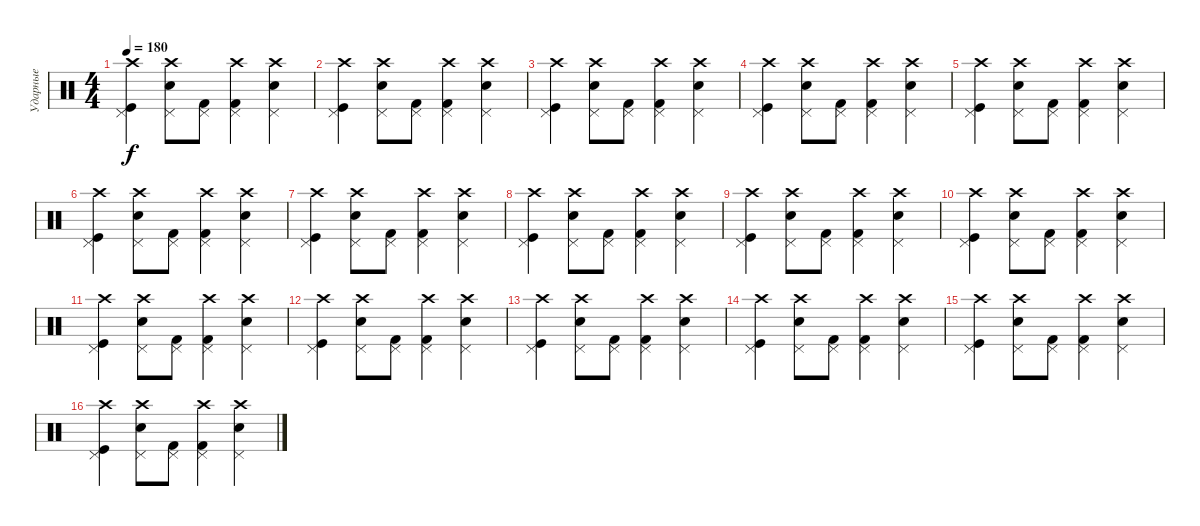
\track ("Ударные" "Ударные") {instrument percussion}
\staff {score}
\articulation defaults
\ts (4 4)
\tempo 180
\clef neutral
\ks c
("Crash high (hit)" "Pedal Hi-Hat (hit)" "Kick (hit)").4{dy f} ("Crash high (hit)" "Pedal Hi-Hat (hit)" "Electric Snare (hit)").8 ("Pedal Hi-Hat (hit)" "Kick (hit) 2").8 ("Crash high (hit)" "Pedal Hi-Hat (hit)" "Kick (hit) 2").4 ("Crash high (hit)" "Pedal Hi-Hat (hit)" "Electric Snare (hit)").4 |
("Crash high (hit)" "Pedal Hi-Hat (hit)" "Kick (hit)").4 ("Crash high (hit)" "Pedal Hi-Hat (hit)" "Electric Snare (hit)").8 ("Pedal Hi-Hat (hit)" "Kick (hit) 2").8 ("Crash high (hit)" "Pedal Hi-Hat (hit)" "Kick (hit) 2").4 ("Crash high (hit)" "Pedal Hi-Hat (hit)" "Electric Snare (hit)").4 |
("Crash high (hit)" "Pedal Hi-Hat (hit)" "Kick (hit)").4 ("Crash high (hit)" "Pedal Hi-Hat (hit)" "Electric Snare (hit)").8 ("Pedal Hi-Hat (hit)" "Kick (hit) 2").8 ("Crash high (hit)" "Pedal Hi-Hat (hit)" "Kick (hit) 2").4 ("Crash high (hit)" "Pedal Hi-Hat (hit)" "Electric Snare (hit)").4 |
("Crash high (hit)" "Pedal Hi-Hat (hit)" "Kick (hit)").4 ("Crash high (hit)" "Pedal Hi-Hat (hit)" "Electric Snare (hit)").8 ("Pedal Hi-Hat (hit)" "Kick (hit) 2").8 ("Crash high (hit)" "Pedal Hi-Hat (hit)" "Kick (hit) 2").4 ("Crash high (hit)" "Pedal Hi-Hat (hit)" "Electric Snare (hit)").4 |
("Crash high (hit)" "Pedal Hi-Hat (hit)" "Kick (hit)").4 ("Crash high (hit)" "Pedal Hi-Hat (hit)" "Electric Snare (hit)").8 ("Pedal Hi-Hat (hit)" "Kick (hit) 2").8 ("Crash high (hit)" "Pedal Hi-Hat (hit)" "Kick (hit) 2").4 ("Crash high (hit)" "Pedal Hi-Hat (hit)" "Electric Snare (hit)").4 |
("Crash high (hit)" "Pedal Hi-Hat (hit)" "Kick (hit)").4 ("Crash high (hit)" "Pedal Hi-Hat (hit)" "Electric Snare (hit)").8 ("Pedal Hi-Hat (hit)" "Kick (hit) 2").8 ("Crash high (hit)" "Pedal Hi-Hat (hit)" "Kick (hit) 2").4 ("Crash high (hit)" "Pedal Hi-Hat (hit)" "Electric Snare (hit)").4 |
("Crash high (hit)" "Pedal Hi-Hat (hit)" "Kick (hit)").4 ("Crash high (hit)" "Pedal Hi-Hat (hit)" "Electric Snare (hit)").8 ("Pedal Hi-Hat (hit)" "Kick (hit) 2").8 ("Crash high (hit)" "Pedal Hi-Hat (hit)" "Kick (hit) 2").4 ("Crash high (hit)" "Pedal Hi-Hat (hit)" "Electric Snare (hit)").4 |
("Crash high (hit)" "Pedal Hi-Hat (hit)" "Kick (hit)").4 ("Crash high (hit)" "Pedal Hi-Hat (hit)" "Electric Snare (hit)").8 ("Pedal Hi-Hat (hit)" "Kick (hit) 2").8 ("Crash high (hit)" "Pedal Hi-Hat (hit)" "Kick (hit) 2").4 ("Crash high (hit)" "Pedal Hi-Hat (hit)" "Electric Snare (hit)").4 |
("Crash high (hit)" "Pedal Hi-Hat (hit)" "Kick (hit)").4 ("Crash high (hit)" "Pedal Hi-Hat (hit)" "Electric Snare (hit)").8 ("Pedal Hi-Hat (hit)" "Kick (hit) 2").8 ("Crash high (hit)" "Pedal Hi-Hat (hit)" "Kick (hit) 2").4 ("Crash high (hit)" "Pedal Hi-Hat (hit)" "Electric Snare (hit)").4 |
("Crash high (hit)" "Pedal Hi-Hat (hit)" "Kick (hit)").4 ("Crash high (hit)" "Pedal Hi-Hat (hit)" "Electric Snare (hit)").8 ("Pedal Hi-Hat (hit)" "Kick (hit) 2").8 ("Crash high (hit)" "Pedal Hi-Hat (hit)" "Kick (hit) 2").4 ("Crash high (hit)" "Pedal Hi-Hat (hit)" "Electric Snare (hit)").4 |
("Crash high (hit)" "Pedal Hi-Hat (hit)" "Kick (hit)").4 ("Crash high (hit)" "Pedal Hi-Hat (hit)" "Electric Snare (hit)").8 ("Pedal Hi-Hat (hit)" "Kick (hit) 2").8 ("Crash high (hit)" "Pedal Hi-Hat (hit)" "Kick (hit) 2").4 ("Crash high (hit)" "Pedal Hi-Hat (hit)" "Electric Snare (hit)").4 |
("Crash high (hit)" "Pedal Hi-Hat (hit)" "Kick (hit)").4 ("Crash high (hit)" "Pedal Hi-Hat (hit)" "Electric Snare (hit)").8 ("Pedal Hi-Hat (hit)" "Kick (hit) 2").8 ("Crash high (hit)" "Pedal Hi-Hat (hit)" "Kick (hit) 2").4 ("Crash high (hit)" "Pedal Hi-Hat (hit)" "Electric Snare (hit)").4 |
("Crash high (hit)" "Pedal Hi-Hat (hit)" "Kick (hit)").4 ("Crash high (hit)" "Pedal Hi-Hat (hit)" "Electric Snare (hit)").8 ("Pedal Hi-Hat (hit)" "Kick (hit) 2").8 ("Crash high (hit)" "Pedal Hi-Hat (hit)" "Kick (hit) 2").4 ("Crash high (hit)" "Pedal Hi-Hat (hit)" "Electric Snare (hit)").4 |
("Crash high (hit)" "Pedal Hi-Hat (hit)" "Kick (hit)").4 ("Crash high (hit)" "Pedal Hi-Hat (hit)" "Electric Snare (hit)").8 ("Pedal Hi-Hat (hit)" "Kick (hit) 2").8 ("Crash high (hit)" "Pedal Hi-Hat (hit)" "Kick (hit) 2").4 ("Crash high (hit)" "Pedal Hi-Hat (hit)" "Electric Snare (hit)").4 |
("Crash high (hit)" "Pedal Hi-Hat (hit)" "Kick (hit)").4 ("Crash high (hit)" "Pedal Hi-Hat (hit)" "Electric Snare (hit)").8 ("Pedal Hi-Hat (hit)" "Kick (hit) 2").8 ("Crash high (hit)" "Pedal Hi-Hat (hit)" "Kick (hit) 2").4 ("Crash high (hit)" "Pedal Hi-Hat (hit)" "Electric Snare (hit)").4 |
("Crash high (hit)" "Pedal Hi-Hat (hit)" "Kick (hit)").4 ("Crash high (hit)" "Pedal Hi-Hat (hit)" "Electric Snare (hit)").8 ("Pedal Hi-Hat (hit)" "Kick (hit) 2").8 ("Crash high (hit)" "Pedal Hi-Hat (hit)" "Kick (hit) 2").4 ("Crash high (hit)" "Pedal Hi-Hat (hit)" "Electric Snare (hit)").4
